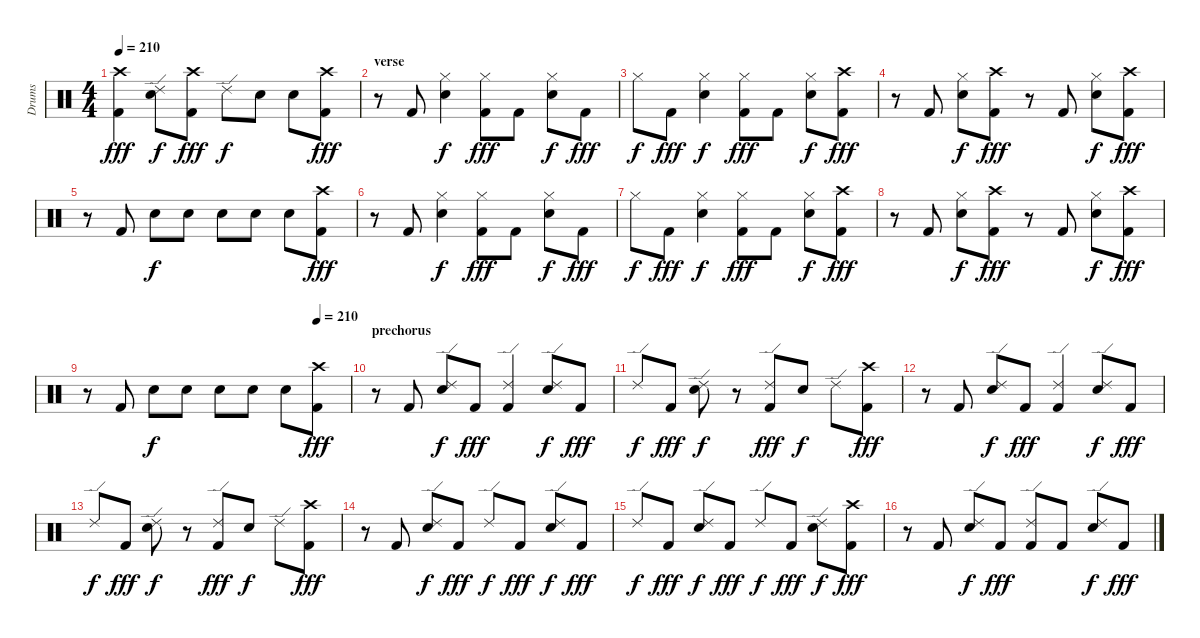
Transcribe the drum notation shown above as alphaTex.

\track ("Drums" "Drums") {instrument percussion}
\staff {score}
\articulation defaults
\ts (4 4)
\tempo 210
\clef neutral
\ks c
("Crash high (hit)" "Kick (hit) 2").4{dy fff} ("Ride (edge) 2" "Snare (hit) 2").8{dy f} ("Crash high (hit)" "Kick (hit) 2").8{dy fff} "Ride (edge) 2".8{dy f} "Snare (hit) 2".8 "Snare (hit) 2".8 ("Crash high (hit)" "Kick (hit) 2").8{dy fff} |
\section ("" "verse")
r.8 "Kick (hit) 2".8 ("Hi-Hat (closed)" "Snare (hit) 2").4{dy f} ("Hi-Hat (closed)" "Kick (hit) 2").8{dy fff} "Kick (hit) 2".8 ("Hi-Hat (closed)" "Snare (hit) 2").8{dy f} "Kick (hit) 2".8{dy fff} |
"Hi-Hat (closed)".8{dy f} "Kick (hit) 2".8{dy fff} ("Hi-Hat (closed)" "Snare (hit) 2").4{dy f} ("Hi-Hat (closed)" "Kick (hit) 2").8{dy fff} "Kick (hit) 2".8 ("Hi-Hat (closed)" "Snare (hit) 2").8{dy f} ("Crash high (hit)" "Kick (hit) 2").8{dy fff} |
r.8 "Kick (hit) 2".8 ("Hi-Hat (closed)" "Snare (hit) 2").8{dy f} ("Crash high (hit)" "Kick (hit) 2").8{dy fff} r.8 "Kick (hit) 2".8 ("Hi-Hat (closed)" "Snare (hit) 2").8{dy f} ("Crash high (hit)" "Kick (hit) 2").8{dy fff} |
r.8 "Kick (hit) 2".8 "Snare (hit) 2".8{dy f} "Snare (hit) 2".8 "Snare (hit) 2".8 "Snare (hit) 2".8 "Snare (hit) 2".8 ("Crash high (hit)" "Kick (hit) 2").8{dy fff} |
r.8 "Kick (hit) 2".8 ("Hi-Hat (closed)" "Snare (hit) 2").4{dy f} ("Hi-Hat (closed)" "Kick (hit) 2").8{dy fff} "Kick (hit) 2".8 ("Hi-Hat (closed)" "Snare (hit) 2").8{dy f} "Kick (hit) 2".8{dy fff} |
"Hi-Hat (closed)".8{dy f} "Kick (hit) 2".8{dy fff} ("Hi-Hat (closed)" "Snare (hit) 2").4{dy f} ("Hi-Hat (closed)" "Kick (hit) 2").8{dy fff} "Kick (hit) 2".8 ("Hi-Hat (closed)" "Snare (hit) 2").8{dy f} ("Crash high (hit)" "Kick (hit) 2").8{dy fff} |
r.8 "Kick (hit) 2".8 ("Hi-Hat (closed)" "Snare (hit) 2").8{dy f} ("Crash high (hit)" "Kick (hit) 2").8{dy fff} r.8 "Kick (hit) 2".8 ("Hi-Hat (closed)" "Snare (hit) 2").8{dy f} ("Crash high (hit)" "Kick (hit) 2").8{dy fff} |
\tempo (210 0.875)
r.8 "Kick (hit) 2".8 "Snare (hit) 2".8{dy f} "Snare (hit) 2".8 "Snare (hit) 2".8 "Snare (hit) 2".8 "Snare (hit) 2".8 ("Crash high (hit)" "Kick (hit) 2").8{dy fff} |
\section ("" "prechorus")
r.8 "Kick (hit) 2".8 ("Ride (edge) 2" "Snare (hit) 2").8{dy f} "Kick (hit) 2".8{dy fff} ("Ride (edge) 2" "Kick (hit) 2").4 ("Ride (edge) 2" "Snare (hit) 2").8{dy f} "Kick (hit) 2".8{dy fff} |
"Ride (edge) 2".8{dy f} "Kick (hit) 2".8{dy fff} ("Ride (edge) 2" "Snare (hit) 2").8{dy f} r.8 ("Ride (edge) 2" "Kick (hit) 2").8{dy fff} "Snare (hit) 2".8{dy f} "Ride (edge) 2".8 ("Crash high (hit)" "Kick (hit) 2").8{dy fff} |
r.8 "Kick (hit) 2".8 ("Ride (edge) 2" "Snare (hit) 2").8{dy f} "Kick (hit) 2".8{dy fff} ("Ride (edge) 2" "Kick (hit) 2").4 ("Ride (edge) 2" "Snare (hit) 2").8{dy f} "Kick (hit) 2".8{dy fff} |
"Ride (edge) 2".8{dy f} "Kick (hit) 2".8{dy fff} ("Ride (edge) 2" "Snare (hit) 2").8{dy f} r.8 ("Ride (edge) 2" "Kick (hit) 2").8{dy fff} "Snare (hit) 2".8{dy f} "Ride (edge) 2".8 ("Crash high (hit)" "Kick (hit) 2").8{dy fff} |
r.8 "Kick (hit) 2".8 ("Ride (edge) 2" "Snare (hit) 2").8{dy f} "Kick (hit) 2".8{dy fff} "Ride (edge) 2".8{dy f} "Kick (hit) 2".8{dy fff} ("Ride (edge) 2" "Snare (hit) 2").8{dy f} "Kick (hit) 2".8{dy fff} |
"Ride (edge) 2".8{dy f} "Kick (hit) 2".8{dy fff} ("Ride (edge) 2" "Snare (hit) 2").8{dy f} "Kick (hit) 2".8{dy fff} "Ride (edge) 2".8{dy f} "Kick (hit) 2".8{dy fff} ("Ride (edge) 2" "Snare (hit) 2").8{dy f} ("Crash high (hit)" "Kick (hit) 2").8{dy fff} |
r.8 "Kick (hit) 2".8 ("Ride (edge) 2" "Snare (hit) 2").8{dy f} "Kick (hit) 2".8{dy fff} ("Ride (edge) 2" "Kick (hit) 2").8 "Kick (hit) 2".8 ("Ride (edge) 2" "Snare (hit) 2").8{dy f} "Kick (hit) 2".8{dy fff}
